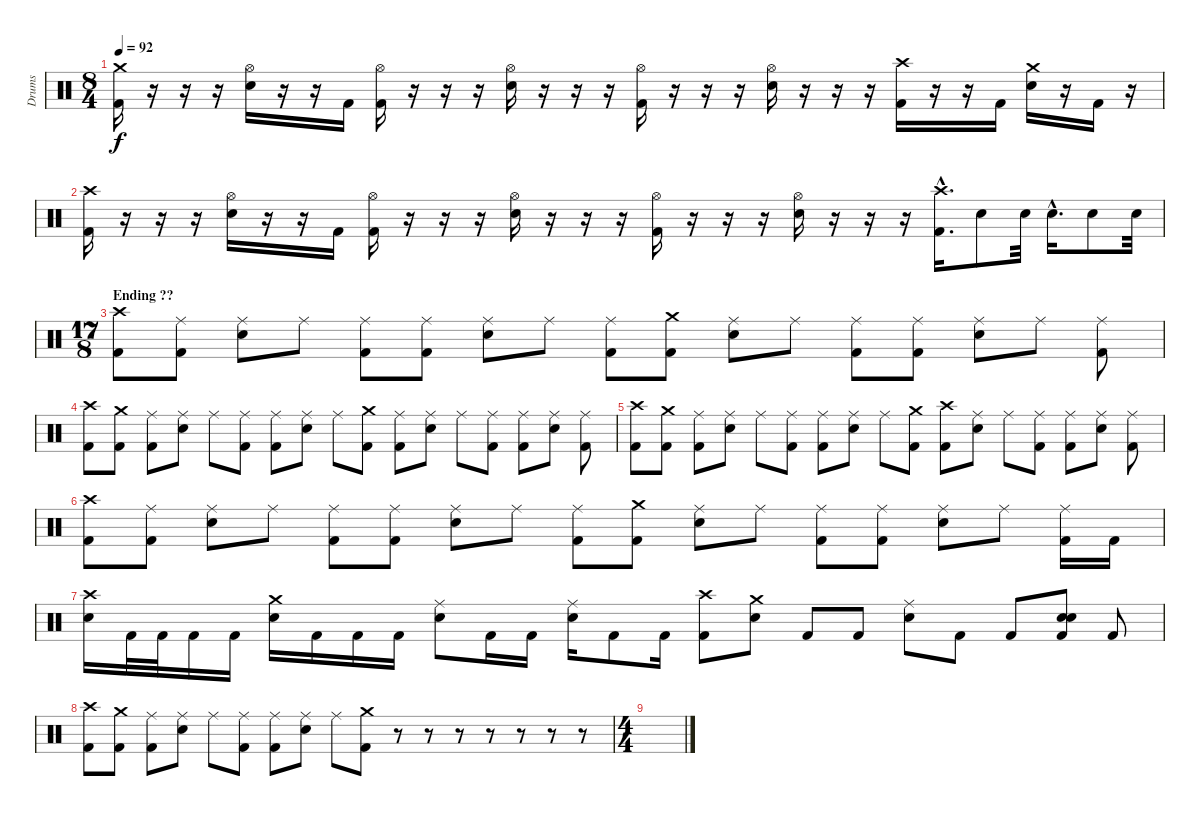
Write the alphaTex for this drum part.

\track ("Drums" "Drums") {instrument percussion}
\staff {score}
\articulation defaults
\ts (8 4)
\tempo 92
\clef neutral
\ks c
("Crash medium (hit)" "Kick (hit) 2").16{dy f} r.16 r.16 r.16 ("Hi-Hat (open)" "Snare (hit) 2").16 r.16 r.16 "Kick (hit) 2".16 ("Hi-Hat (open)" "Kick (hit) 2").16 r.16 r.16 r.16 ("Hi-Hat (open)" "Snare (hit) 2").16 r.16 r.16 r.16 ("Hi-Hat (open)" "Kick (hit) 2").16 r.16 r.16 r.16 ("Hi-Hat (open)" "Snare (hit) 2").16 r.16 r.16 r.16 ("Crash high (hit)" "Kick (hit) 2").16 r.16 r.16 "Kick (hit) 2".16 ("Crash medium (hit)" "Snare (hit) 2").16 r.16 "Kick (hit) 2".16 r.16 |
("Crash high (hit)" "Kick (hit) 2").16 r.16 r.16 r.16 ("Hi-Hat (open)" "Snare (hit) 2").16 r.16 r.16 "Kick (hit) 2".16 ("Hi-Hat (open)" "Kick (hit) 2").16 r.16 r.16 r.16 ("Hi-Hat (open)" "Snare (hit) 2").16 r.16 r.16 r.16 ("Hi-Hat (open)" "Kick (hit) 2").16 r.16 r.16 r.16 ("Hi-Hat (open)" "Snare (hit) 2").16 r.16 r.16 r.16 ("Crash high (hit)"{hac} "Kick (hit) 2"{hac}).16{d} "Snare (hit) 2".8 "Snare (hit) 2".32 "Snare (hit) 2"{hac}.16{d} "Snare (hit) 2".8 "Snare (hit) 2".32 |
\ts (17 8)
\section ("" "Ending ??")
("Crash high (hit)" "Kick (hit) 2").8 ("Ride (middle)" "Kick (hit) 2").8 ("Ride (middle)" "Snare (hit) 2").8 "Ride (middle)".8 ("Ride (middle)" "Kick (hit) 2").8 ("Ride (middle)" "Kick (hit) 2").8 ("Ride (middle)" "Snare (hit) 2").8 "Ride (middle)".8 ("Ride (middle)" "Kick (hit) 2").8 ("Crash medium (hit)" "Kick (hit) 2").8 ("Ride (middle)" "Snare (hit) 2").8 "Ride (middle)".8 ("Ride (middle)" "Kick (hit) 2").8 ("Ride (middle)" "Kick (hit) 2").8 ("Ride (middle)" "Snare (hit) 2").8 "Ride (middle)".8 ("Ride (middle)" "Kick (hit) 2").8 |
("Crash high (hit)" "Kick (hit) 2").8 ("Crash medium (hit)" "Kick (hit) 2").8 ("Ride (middle)" "Kick (hit) 2").8 ("Ride (middle)" "Snare (hit) 2").8 "Ride (middle)".8 ("Ride (middle)" "Kick (hit) 2").8 ("Ride (middle)" "Kick (hit) 2").8 ("Ride (middle)" "Snare (hit) 2").8 "Ride (middle)".8 ("Crash medium (hit)" "Kick (hit) 2").8 ("Ride (middle)" "Kick (hit) 2").8 ("Ride (middle)" "Snare (hit) 2").8 "Ride (middle)".8 ("Ride (middle)" "Kick (hit) 2").8 ("Ride (middle)" "Kick (hit) 2").8 ("Ride (middle)" "Snare (hit) 2").8 ("Ride (middle)" "Kick (hit) 2").8 |
("Crash high (hit)" "Kick (hit) 2").8 ("Crash medium (hit)" "Kick (hit) 2").8 ("Ride (middle)" "Kick (hit) 2").8 ("Ride (middle)" "Snare (hit) 2").8 "Ride (middle)".8 ("Ride (middle)" "Kick (hit) 2").8 ("Ride (middle)" "Kick (hit) 2").8 ("Ride (middle)" "Snare (hit) 2").8 "Ride (middle)".8 ("Crash medium (hit)" "Kick (hit) 2").8 ("Crash high (hit)" "Kick (hit) 2").8 ("Ride (middle)" "Snare (hit) 2").8 "Ride (middle)".8 ("Ride (middle)" "Kick (hit) 2").8 ("Ride (middle)" "Kick (hit) 2").8 ("Ride (middle)" "Snare (hit) 2").8 ("Ride (middle)" "Kick (hit) 2").8 |
("Crash high (hit)" "Kick (hit) 2").8 ("Ride (middle)" "Kick (hit) 2").8 ("Ride (middle)" "Snare (hit) 2").8 "Ride (middle)".8 ("Ride (middle)" "Kick (hit) 2").8 ("Ride (middle)" "Kick (hit) 2").8 ("Ride (middle)" "Snare (hit) 2").8 "Ride (middle)".8 ("Ride (middle)" "Kick (hit) 2").8 ("Crash medium (hit)" "Kick (hit) 2").8 ("Ride (middle)" "Snare (hit) 2").8 "Ride (middle)".8 ("Ride (middle)" "Kick (hit) 2").8 ("Ride (middle)" "Kick (hit) 2").8 ("Ride (middle)" "Snare (hit) 2").8 "Ride (middle)".8 ("Ride (middle)" "Kick (hit) 2").16 "Kick (hit) 2".16 |
("Crash high (hit)" "Snare (hit) 2").16 "Kick (hit) 2".32 "Kick (hit) 2".32 "Kick (hit) 2".16 "Kick (hit) 2".16 ("Crash medium (hit)" "Snare (hit) 2").16 "Kick (hit) 2".16 "Kick (hit) 2".16 "Kick (hit) 2".16 ("Ride (middle)" "Snare (hit) 2").8 "Kick (hit) 2".16 "Kick (hit) 2".16 ("Ride (middle)" "Snare (hit) 2").16 "Kick (hit) 2".8 "Kick (hit) 2".16 ("Crash high (hit)" "Kick (hit) 2").8 ("Crash medium (hit)" "Snare (hit) 2").8 "Kick (hit) 2".8 "Kick (hit) 2".8 ("Ride (middle)" "Snare (hit) 2").8 "Kick (hit) 2".8 "Kick (hit) 2".8 ("Snare (hit)" "Snare (hit) 2" "Kick (hit) 2").8 "Kick (hit) 2".8 |
("Crash high (hit)" "Kick (hit) 2").8 ("Crash medium (hit)" "Kick (hit) 2").8 ("Ride (middle)" "Kick (hit) 2").8 ("Ride (middle)" "Snare (hit) 2").8 "Ride (middle)".8 ("Ride (middle)" "Kick (hit) 2").8 ("Ride (middle)" "Kick (hit) 2").8 ("Ride (middle)" "Snare (hit) 2").8 "Ride (middle)".8 ("Crash medium (hit)" "Kick (hit) 2").8 r.8 r.8 r.8 r.8 r.8 r.8 r.8 |
\ts (4 4)
